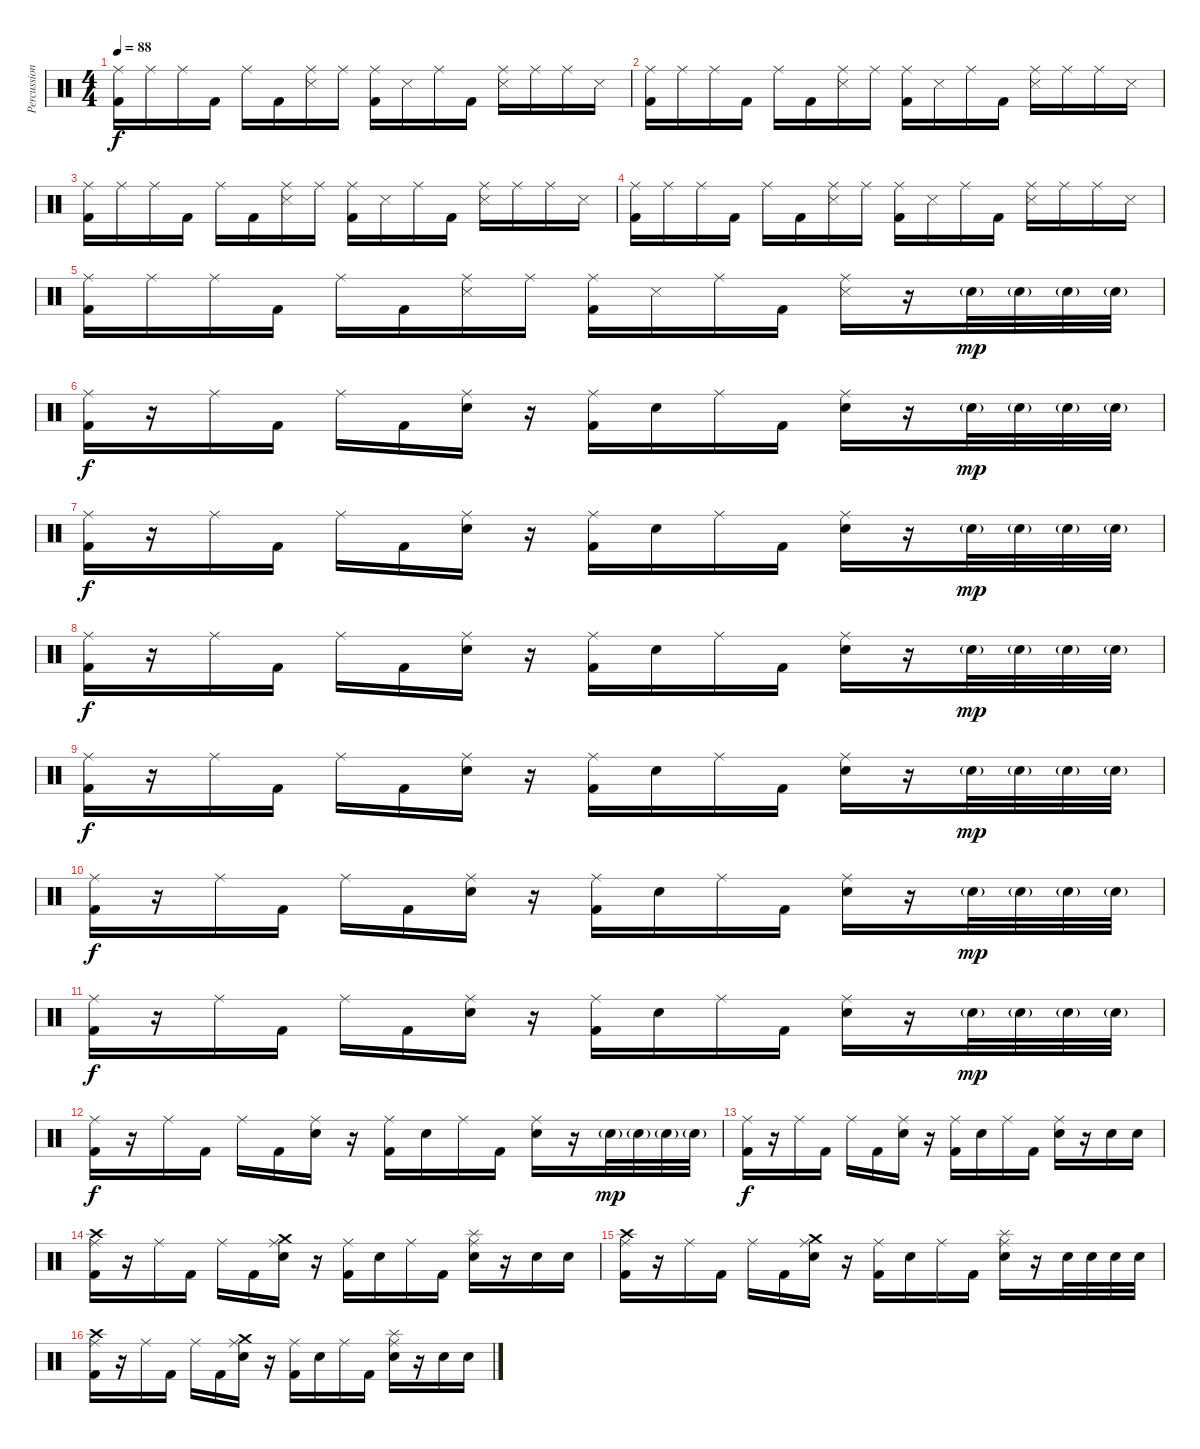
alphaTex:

\track ("Percussion" "Percussion") {instrument percussion}
\staff {score}
\articulation defaults
\ts (4 4)
\tempo 88
\clef neutral
\ks c
("Ride (middle)" "Kick (hit) 2").16{dy f} "Ride (middle)".16 "Ride (middle)".16 "Kick (hit) 2".16 "Ride (middle)".16 "Kick (hit) 2".16 ("Ride (middle)" "Snare (side stick) 3").16 "Ride (middle)".16 ("Ride (middle)" "Kick (hit) 2").16 "Snare (side stick) 3".16 "Ride (middle)".16 "Kick (hit) 2".16 ("Ride (middle)" "Snare (side stick) 3").16 "Ride (middle)".16 "Ride (middle)".16 "Snare (side stick) 3".16 |
("Ride (middle)" "Kick (hit) 2").16 "Ride (middle)".16 "Ride (middle)".16 "Kick (hit) 2".16 "Ride (middle)".16 "Kick (hit) 2".16 ("Ride (middle)" "Snare (side stick) 3").16 "Ride (middle)".16 ("Ride (middle)" "Kick (hit) 2").16 "Snare (side stick) 3".16 "Ride (middle)".16 "Kick (hit) 2".16 ("Ride (middle)" "Snare (side stick) 3").16 "Ride (middle)".16 "Ride (middle)".16 "Snare (side stick) 3".16 |
("Ride (middle)" "Kick (hit) 2").16 "Ride (middle)".16 "Ride (middle)".16 "Kick (hit) 2".16 "Ride (middle)".16 "Kick (hit) 2".16 ("Ride (middle)" "Snare (side stick) 3").16 "Ride (middle)".16 ("Ride (middle)" "Kick (hit) 2").16 "Snare (side stick) 3".16 "Ride (middle)".16 "Kick (hit) 2".16 ("Ride (middle)" "Snare (side stick) 3").16 "Ride (middle)".16 "Ride (middle)".16 "Snare (side stick) 3".16 |
("Ride (middle)" "Kick (hit) 2").16 "Ride (middle)".16 "Ride (middle)".16 "Kick (hit) 2".16 "Ride (middle)".16 "Kick (hit) 2".16 ("Ride (middle)" "Snare (side stick) 3").16 "Ride (middle)".16 ("Ride (middle)" "Kick (hit) 2").16 "Snare (side stick) 3".16 "Ride (middle)".16 "Kick (hit) 2".16 ("Ride (middle)" "Snare (side stick) 3").16 "Ride (middle)".16 "Ride (middle)".16 "Snare (side stick) 3".16 |
("Ride (middle)" "Kick (hit) 2").16 "Ride (middle)".16 "Ride (middle)".16 "Kick (hit) 2".16 "Ride (middle)".16 "Kick (hit) 2".16 ("Ride (middle)" "Snare (side stick) 3").16 "Ride (middle)".16 ("Ride (middle)" "Kick (hit) 2").16 "Snare (side stick) 3".16 "Ride (middle)".16 "Kick (hit) 2".16 ("Ride (middle)" "Snare (side stick) 3").16 r.16 "Electric Snare (hit)"{g}.32{dy mp} "Electric Snare (hit)"{g}.32 "Electric Snare (hit)"{g}.32 "Electric Snare (hit)"{g}.32 |
("Ride (middle)" "Kick (hit) 2").16{dy f} r.16 "Ride (middle)".16 "Kick (hit) 2".16 "Ride (middle)".16 "Kick (hit) 2".16 ("Ride (middle)" "Electric Snare (hit)").16 r.16 ("Ride (middle)" "Kick (hit) 2").16 "Electric Snare (hit)".16 "Ride (middle)".16 "Kick (hit) 2".16 ("Ride (middle)" "Electric Snare (hit)").16 r.16 "Electric Snare (hit)"{g}.32{dy mp} "Electric Snare (hit)"{g}.32 "Electric Snare (hit)"{g}.32 "Electric Snare (hit)"{g}.32 |
("Ride (middle)" "Kick (hit) 2").16{dy f} r.16 "Ride (middle)".16 "Kick (hit) 2".16 "Ride (middle)".16 "Kick (hit) 2".16 ("Ride (middle)" "Electric Snare (hit)").16 r.16 ("Ride (middle)" "Kick (hit) 2").16 "Electric Snare (hit)".16 "Ride (middle)".16 "Kick (hit) 2".16 ("Ride (middle)" "Electric Snare (hit)").16 r.16 "Electric Snare (hit)"{g}.32{dy mp} "Electric Snare (hit)"{g}.32 "Electric Snare (hit)"{g}.32 "Electric Snare (hit)"{g}.32 |
("Ride (middle)" "Kick (hit) 2").16{dy f} r.16 "Ride (middle)".16 "Kick (hit) 2".16 "Ride (middle)".16 "Kick (hit) 2".16 ("Ride (middle)" "Electric Snare (hit)").16 r.16 ("Ride (middle)" "Kick (hit) 2").16 "Electric Snare (hit)".16 "Ride (middle)".16 "Kick (hit) 2".16 ("Ride (middle)" "Electric Snare (hit)").16 r.16 "Electric Snare (hit)"{g}.32{dy mp} "Electric Snare (hit)"{g}.32 "Electric Snare (hit)"{g}.32 "Electric Snare (hit)"{g}.32 |
("Ride (middle)" "Kick (hit) 2").16{dy f} r.16 "Ride (middle)".16 "Kick (hit) 2".16 "Ride (middle)".16 "Kick (hit) 2".16 ("Ride (middle)" "Electric Snare (hit)").16 r.16 ("Ride (middle)" "Kick (hit) 2").16 "Electric Snare (hit)".16 "Ride (middle)".16 "Kick (hit) 2".16 ("Ride (middle)" "Electric Snare (hit)").16 r.16 "Electric Snare (hit)"{g}.32{dy mp} "Electric Snare (hit)"{g}.32 "Electric Snare (hit)"{g}.32 "Electric Snare (hit)"{g}.32 |
("Ride (middle)" "Kick (hit) 2").16{dy f} r.16 "Ride (middle)".16 "Kick (hit) 2".16 "Ride (middle)".16 "Kick (hit) 2".16 ("Ride (middle)" "Electric Snare (hit)").16 r.16 ("Ride (middle)" "Kick (hit) 2").16 "Electric Snare (hit)".16 "Ride (middle)".16 "Kick (hit) 2".16 ("Ride (middle)" "Electric Snare (hit)").16 r.16 "Electric Snare (hit)"{g}.32{dy mp} "Electric Snare (hit)"{g}.32 "Electric Snare (hit)"{g}.32 "Electric Snare (hit)"{g}.32 |
("Ride (middle)" "Kick (hit) 2").16{dy f} r.16 "Ride (middle)".16 "Kick (hit) 2".16 "Ride (middle)".16 "Kick (hit) 2".16 ("Ride (middle)" "Electric Snare (hit)").16 r.16 ("Ride (middle)" "Kick (hit) 2").16 "Electric Snare (hit)".16 "Ride (middle)".16 "Kick (hit) 2".16 ("Ride (middle)" "Electric Snare (hit)").16 r.16 "Electric Snare (hit)"{g}.32{dy mp} "Electric Snare (hit)"{g}.32 "Electric Snare (hit)"{g}.32 "Electric Snare (hit)"{g}.32 |
("Ride (middle)" "Kick (hit) 2").16{dy f} r.16 "Ride (middle)".16 "Kick (hit) 2".16 "Ride (middle)".16 "Kick (hit) 2".16 ("Ride (middle)" "Electric Snare (hit)").16 r.16 ("Ride (middle)" "Kick (hit) 2").16 "Electric Snare (hit)".16 "Ride (middle)".16 "Kick (hit) 2".16 ("Ride (middle)" "Electric Snare (hit)").16 r.16 "Electric Snare (hit)"{g}.32{dy mp} "Electric Snare (hit)"{g}.32 "Electric Snare (hit)"{g}.32 "Electric Snare (hit)"{g}.32 |
("Ride (middle)" "Kick (hit) 2").16{dy f} r.16 "Ride (middle)".16 "Kick (hit) 2".16 "Ride (middle)".16 "Kick (hit) 2".16 ("Ride (middle)" "Electric Snare (hit)").16 r.16 ("Ride (middle)" "Kick (hit) 2").16 "Electric Snare (hit)".16 "Ride (middle)".16 "Kick (hit) 2".16 ("Ride (middle)" "Electric Snare (hit)").16 r.16 "Electric Snare (hit)".16 "Electric Snare (hit)".16 |
("Crash high (hit)" "Ride (middle)" "Kick (hit) 2").16 r.16 "Ride (middle)".16 "Kick (hit) 2".16 "Ride (middle)".16 "Kick (hit) 2".16 ("Crash medium (hit)" "Ride (middle)" "Electric Snare (hit)").16 r.16 ("Ride (middle)" "Kick (hit) 2").16 "Electric Snare (hit)".16 "Ride (middle)".16 "Kick (hit) 2".16 ("Splash (hit)" "Ride (middle)" "Electric Snare (hit)").16 r.16 "Electric Snare (hit)".16 "Electric Snare (hit)".16 |
("Crash high (hit)" "Ride (middle)" "Kick (hit) 2").16 r.16 "Ride (middle)".16 "Kick (hit) 2".16 "Ride (middle)".16 "Kick (hit) 2".16 ("Crash medium (hit)" "Ride (middle)" "Electric Snare (hit)").16 r.16 ("Ride (middle)" "Kick (hit) 2").16 "Electric Snare (hit)".16 "Ride (middle)".16 "Kick (hit) 2".16 ("Splash (hit)" "Ride (middle)" "Electric Snare (hit)").16 r.16 "Electric Snare (hit)".32 "Electric Snare (hit)".32 "Electric Snare (hit)".32 "Electric Snare (hit)".32 |
("Crash high (hit)" "Ride (middle)" "Kick (hit) 2").16 r.16 "Ride (middle)".16 "Kick (hit) 2".16 "Ride (middle)".16 "Kick (hit) 2".16 ("Crash medium (hit)" "Ride (middle)" "Electric Snare (hit)").16 r.16 ("Ride (middle)" "Kick (hit) 2").16 "Electric Snare (hit)".16 "Ride (middle)".16 "Kick (hit) 2".16 ("Splash (hit)" "Ride (middle)" "Electric Snare (hit)").16 r.16 "Electric Snare (hit)".16 "Electric Snare (hit)".16
